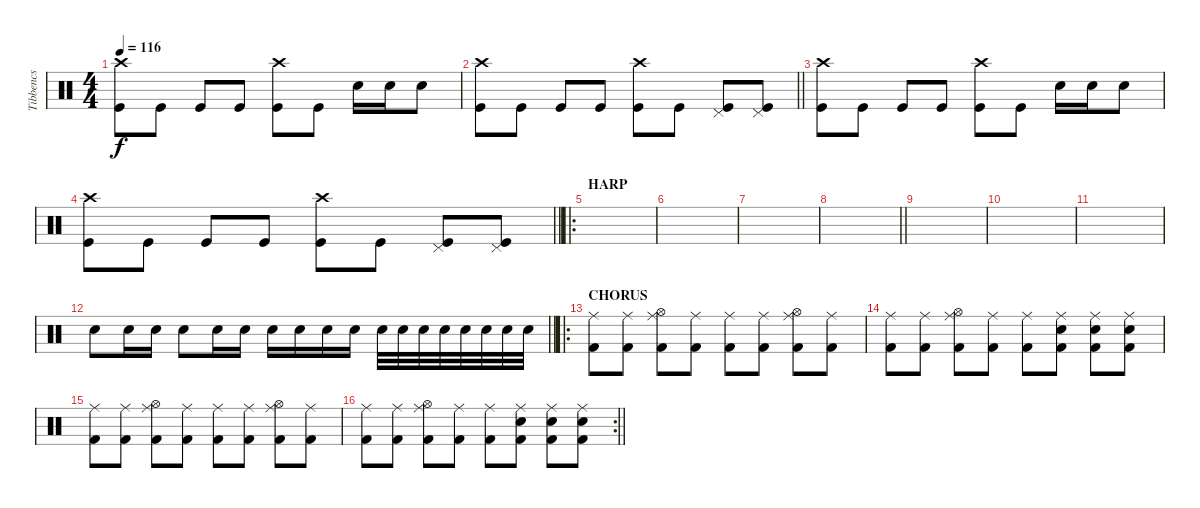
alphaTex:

\track ("Tibbencs" "Tibbencs") {instrument percussion}
\staff {score}
\articulation defaults
\ts (4 4)
\tempo 116
\clef neutral
\ks c
("Kick (hit)" "Crash high (hit)").8{dy f} "Kick (hit)".8 "Kick (hit)".8 "Kick (hit)".8 ("Kick (hit)" "Crash high (hit)").8 "Kick (hit)".8 "Electric Snare (hit)".16 "Electric Snare (hit)".16 "Snare (hit) 2".8 |
\barLineRight lightlight
("Kick (hit)" "Crash high (hit)").8 "Kick (hit)".8 "Kick (hit)".8 "Kick (hit)".8 ("Kick (hit)" "Crash high (hit)").8 "Kick (hit)".8 ("Kick (hit)" "Pedal Hi-Hat (hit)").8 ("Kick (hit)" "Pedal Hi-Hat (hit)").8 |
("Kick (hit)" "Crash high (hit)").8 "Kick (hit)".8 "Kick (hit)".8 "Kick (hit)".8 ("Kick (hit)" "Crash high (hit)").8 "Kick (hit)".8 "Electric Snare (hit)".16 "Electric Snare (hit)".16 "Snare (hit) 2".8 |
\barLineRight lightlight
("Kick (hit)" "Crash high (hit)").8 "Kick (hit)".8 "Kick (hit)".8 "Kick (hit)".8 ("Kick (hit)" "Crash high (hit)").8 "Kick (hit)".8 ("Kick (hit)" "Pedal Hi-Hat (hit)").8 ("Kick (hit)" "Pedal Hi-Hat (hit)").8 |
\ro
\section ("" "HARP")
|
|
|
\barLineRight lightlight
|
|
|
|
\barLineRight lightlight "Snare (hit) 2".8 "Snare (hit) 2".16 "Snare (hit) 2".16 "Snare (hit) 2".8 "Snare (hit) 2".16 "Snare (hit) 2".16 "Snare (hit) 2".16 "Snare (hit) 2".16 "Snare (hit) 2".16 "Snare (hit) 2".16 "Snare (hit) 2".32 "Snare (hit) 2".32 "Snare (hit) 2".32 "Snare (hit) 2".32 "Snare (hit) 2".32 "Snare (hit) 2".32 "Snare (hit) 2".32 "Snare (hit) 2".32
|
\ro
\section ("" "CHORUS")
("Kick (hit) 2" "Ride (middle)").8 ("Kick (hit) 2" "Ride (middle)").8 ("Kick (hit) 2" "Hi-Hat (open)" "Ride (middle)").8 ("Kick (hit) 2" "Ride (middle)").8 ("Kick (hit) 2" "Ride (middle)").8 ("Kick (hit) 2" "Ride (middle)").8 ("Kick (hit) 2" "Hi-Hat (open)" "Ride (middle)").8 ("Kick (hit) 2" "Ride (middle)").8 |
("Kick (hit) 2" "Ride (middle)").8 ("Kick (hit) 2" "Ride (middle)").8 ("Kick (hit) 2" "Hi-Hat (open)" "Ride (middle)").8 ("Kick (hit) 2" "Ride (middle)").8 ("Kick (hit) 2" "Ride (middle)").8 ("Kick (hit) 2" "Ride (middle)" "Snare (hit) 2").8 ("Kick (hit) 2" "Ride (middle)" "Snare (hit) 2").8 ("Kick (hit) 2" "Ride (middle)" "Snare (hit) 2").8 |
("Kick (hit) 2" "Ride (middle)").8 ("Kick (hit) 2" "Ride (middle)").8 ("Kick (hit) 2" "Hi-Hat (open)" "Ride (middle)").8 ("Kick (hit) 2" "Ride (middle)").8 ("Kick (hit) 2" "Ride (middle)").8 ("Kick (hit) 2" "Ride (middle)").8 ("Kick (hit) 2" "Hi-Hat (open)" "Ride (middle)").8 ("Kick (hit) 2" "Ride (middle)").8 |
\rc 2
\barLineRight lightlight
("Kick (hit) 2" "Ride (middle)").8 ("Kick (hit) 2" "Ride (middle)").8 ("Kick (hit) 2" "Hi-Hat (open)" "Ride (middle)").8 ("Kick (hit) 2" "Ride (middle)").8 ("Kick (hit) 2" "Ride (middle)").8 ("Kick (hit) 2" "Ride (middle)" "Snare (hit) 2").8 ("Kick (hit) 2" "Ride (middle)" "Snare (hit) 2").8 ("Kick (hit) 2" "Ride (middle)" "Snare (hit) 2").8
